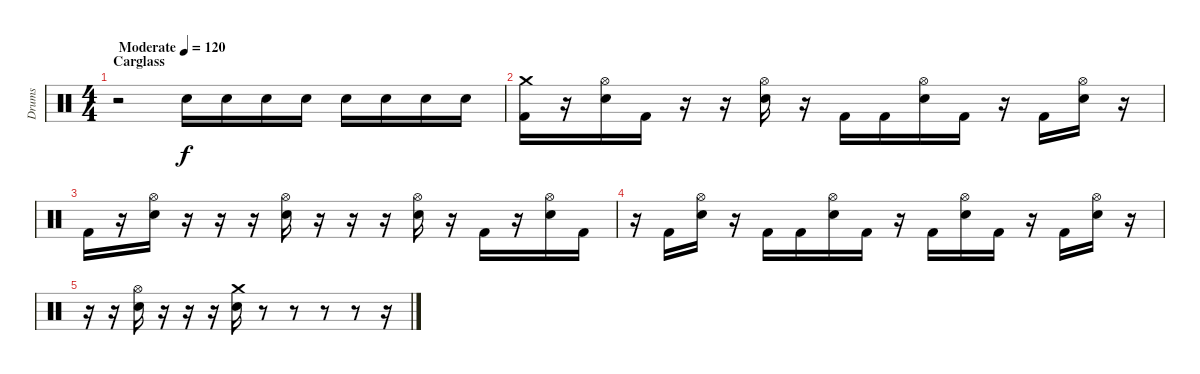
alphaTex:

\track ("Drums" "Drums") {instrument percussion}
\staff
\articulation defaults
\ts (4 4)
\section ("" "Carglass")
\tempo (120 "Moderate")
\clef neutral
\ks c
r.2{dy f} "Snare (hit) 2".16 "Snare (hit) 2".16 "Snare (hit) 2".16 "Snare (hit) 2".16 "Snare (hit) 2".16 "Snare (hit) 2".16 "Snare (hit) 2".16 "Snare (hit) 2".16 |
("Crash medium (hit)" "Kick (hit) 2").16 r.16 ("Hi-Hat (open)" "Snare (hit) 2").16 "Kick (hit) 2".16 r.16 r.16 ("Hi-Hat (open)" "Snare (hit) 2").16 r.16 "Kick (hit) 2".16 "Kick (hit) 2".16 ("Hi-Hat (open)" "Snare (hit) 2").16 "Kick (hit) 2".16 r.16 "Kick (hit) 2".16 ("Hi-Hat (open)" "Snare (hit) 2").16 r.16 |
"Kick (hit) 2".16 r.16 ("Hi-Hat (open)" "Snare (hit) 2").16 r.16 r.16 r.16 ("Hi-Hat (open)" "Snare (hit) 2").16 r.16 r.16 r.16 ("Hi-Hat (open)" "Snare (hit) 2").16 r.16 "Kick (hit) 2".16 r.16 ("Hi-Hat (open)" "Snare (hit) 2").16 "Kick (hit) 2".16 |
r.16 "Kick (hit) 2".16 ("Hi-Hat (open)" "Snare (hit) 2").16 r.16 "Kick (hit) 2".16 "Kick (hit) 2".16 ("Hi-Hat (open)" "Snare (hit) 2").16 "Kick (hit) 2".16 r.16 "Kick (hit) 2".16 ("Hi-Hat (open)" "Snare (hit) 2").16 "Kick (hit) 2".16 r.16 "Kick (hit) 2".16 ("Hi-Hat (open)" "Snare (hit) 2").16 r.16 |
r.16 r.16 ("Hi-Hat (open)" "Snare (hit) 2").16 r.16 r.16 r.16 ("Crash medium (hit)" "Snare (hit) 2").16 r.8 r.8 r.8 r.8 r.16
